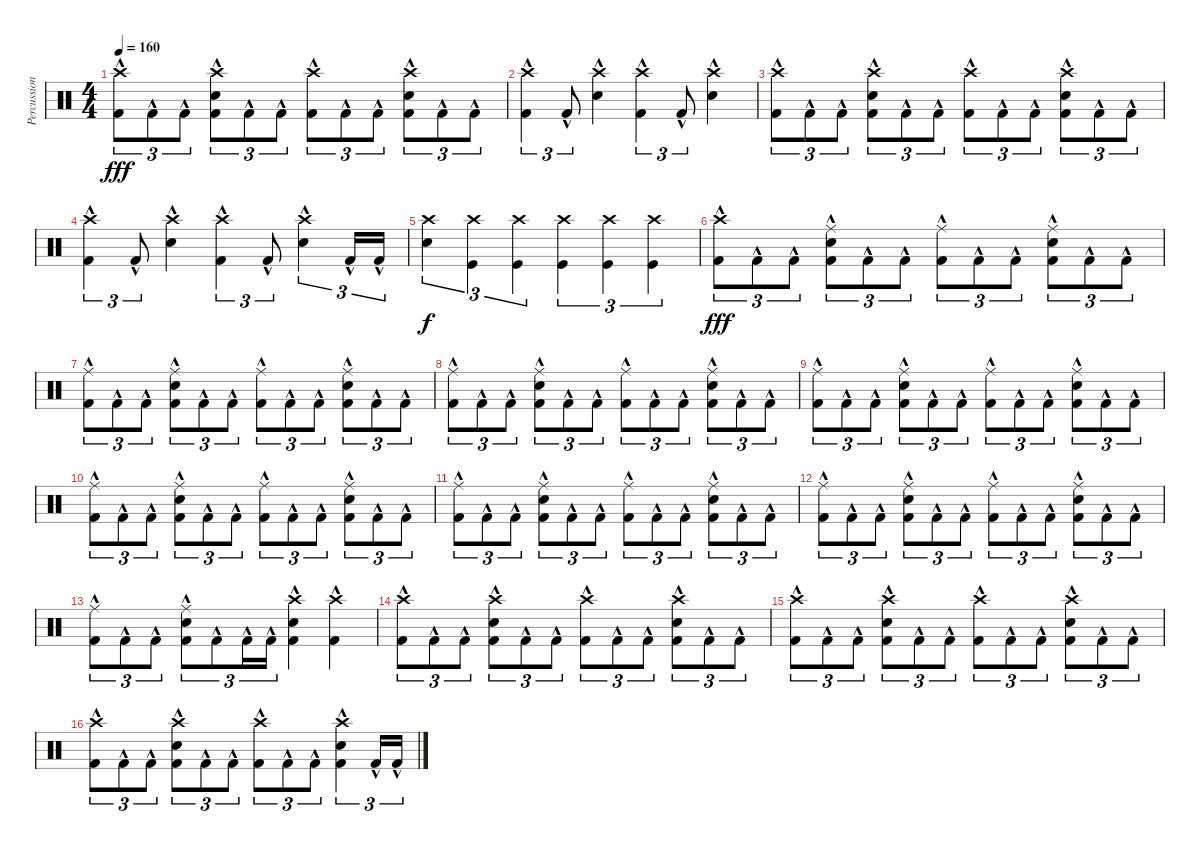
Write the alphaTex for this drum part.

\track ("Percussion" "Percussion") {instrument percussion}
\staff {score}
\articulation defaults
\ts (4 4)
\tempo 160
\clef neutral
\ks c
("Crash high (hit)" "Kick (hit) 2"{hac}).8{tu (3 2) dy fff} "Kick (hit) 2"{hac}.8{tu (3 2)} "Kick (hit) 2"{hac}.8{tu (3 2)} ("Crash high (hit)" "Electric Snare (hit)" "Kick (hit) 2"{hac}).8{tu (3 2)} "Kick (hit) 2"{hac}.8{tu (3 2)} "Kick (hit) 2"{hac}.8{tu (3 2)} ("Crash high (hit)" "Kick (hit) 2"{hac}).8{tu (3 2)} "Kick (hit) 2"{hac}.8{tu (3 2)} "Kick (hit) 2"{hac}.8{tu (3 2)} ("Crash high (hit)" "Electric Snare (hit)" "Kick (hit) 2"{hac}).8{tu (3 2)} "Kick (hit) 2"{hac}.8{tu (3 2)} "Kick (hit) 2"{hac}.8{tu (3 2)} |
("Crash high (hit)" "Kick (hit) 2"{hac}).4{tu (3 2)} "Kick (hit) 2"{hac}.8{tu (3 2)} ("Crash high (hit)" "Electric Snare (hit)"{hac}).4 ("Crash high (hit)" "Kick (hit) 2"{hac}).4{tu (3 2)} "Kick (hit) 2"{hac}.8{tu (3 2)} ("Crash high (hit)" "Electric Snare (hit)"{hac}).4 |
("Crash high (hit)" "Kick (hit) 2"{hac}).8{tu (3 2)} "Kick (hit) 2"{hac}.8{tu (3 2)} "Kick (hit) 2"{hac}.8{tu (3 2)} ("Crash high (hit)" "Electric Snare (hit)" "Kick (hit) 2"{hac}).8{tu (3 2)} "Kick (hit) 2"{hac}.8{tu (3 2)} "Kick (hit) 2"{hac}.8{tu (3 2)} ("Crash high (hit)" "Kick (hit) 2"{hac}).8{tu (3 2)} "Kick (hit) 2"{hac}.8{tu (3 2)} "Kick (hit) 2"{hac}.8{tu (3 2)} ("Crash high (hit)" "Electric Snare (hit)" "Kick (hit) 2"{hac}).8{tu (3 2)} "Kick (hit) 2"{hac}.8{tu (3 2)} "Kick (hit) 2"{hac}.8{tu (3 2)} |
("Crash high (hit)" "Kick (hit) 2"{hac}).4{tu (3 2)} "Kick (hit) 2"{hac}.8{tu (3 2)} ("Crash high (hit)" "Electric Snare (hit)"{hac}).4 ("Crash high (hit)" "Kick (hit) 2"{hac}).4{tu (3 2)} "Kick (hit) 2"{hac}.8{tu (3 2)} ("Crash high (hit)" "Electric Snare (hit)"{hac}).4{tu (3 2)} "Kick (hit) 2"{hac}.16{tu (3 2)} "Kick (hit) 2"{hac}.16{tu (3 2)} |
("Crash high (hit)" "Electric Snare (hit)").4{tu (3 2) dy f} ("Crash high (hit)" "Kick (hit)").4{tu (3 2)} ("Crash high (hit)" "Kick (hit)").4{tu (3 2)} ("Crash high (hit)" "Kick (hit)").4{tu (3 2)} ("Crash high (hit)" "Kick (hit)").4{tu (3 2)} ("Crash high (hit)" "Kick (hit)").4{tu (3 2)} |
("Crash high (hit)" "Kick (hit) 2"{hac}).8{tu (3 2) dy fff} "Kick (hit) 2"{hac}.8{tu (3 2)} "Kick (hit) 2"{hac}.8{tu (3 2)} ("Ride (middle)" "Electric Snare (hit)" "Kick (hit) 2"{hac}).8{tu (3 2)} "Kick (hit) 2"{hac}.8{tu (3 2)} "Kick (hit) 2"{hac}.8{tu (3 2)} ("Ride (middle)" "Kick (hit) 2"{hac}).8{tu (3 2)} "Kick (hit) 2"{hac}.8{tu (3 2)} "Kick (hit) 2"{hac}.8{tu (3 2)} ("Ride (middle)" "Electric Snare (hit)" "Kick (hit) 2"{hac}).8{tu (3 2)} "Kick (hit) 2"{hac}.8{tu (3 2)} "Kick (hit) 2"{hac}.8{tu (3 2)} |
("Ride (middle)" "Kick (hit) 2"{hac}).8{tu (3 2)} "Kick (hit) 2"{hac}.8{tu (3 2)} "Kick (hit) 2"{hac}.8{tu (3 2)} ("Ride (middle)" "Electric Snare (hit)" "Kick (hit) 2"{hac}).8{tu (3 2)} "Kick (hit) 2"{hac}.8{tu (3 2)} "Kick (hit) 2"{hac}.8{tu (3 2)} ("Ride (middle)" "Kick (hit) 2"{hac}).8{tu (3 2)} "Kick (hit) 2"{hac}.8{tu (3 2)} "Kick (hit) 2"{hac}.8{tu (3 2)} ("Ride (middle)" "Electric Snare (hit)" "Kick (hit) 2"{hac}).8{tu (3 2)} "Kick (hit) 2"{hac}.8{tu (3 2)} "Kick (hit) 2"{hac}.8{tu (3 2)} |
("Ride (middle)" "Kick (hit) 2"{hac}).8{tu (3 2)} "Kick (hit) 2"{hac}.8{tu (3 2)} "Kick (hit) 2"{hac}.8{tu (3 2)} ("Ride (middle)" "Electric Snare (hit)" "Kick (hit) 2"{hac}).8{tu (3 2)} "Kick (hit) 2"{hac}.8{tu (3 2)} "Kick (hit) 2"{hac}.8{tu (3 2)} ("Ride (middle)" "Kick (hit) 2"{hac}).8{tu (3 2)} "Kick (hit) 2"{hac}.8{tu (3 2)} "Kick (hit) 2"{hac}.8{tu (3 2)} ("Ride (middle)" "Electric Snare (hit)" "Kick (hit) 2"{hac}).8{tu (3 2)} "Kick (hit) 2"{hac}.8{tu (3 2)} "Kick (hit) 2"{hac}.8{tu (3 2)} |
("Ride (middle)" "Kick (hit) 2"{hac}).8{tu (3 2)} "Kick (hit) 2"{hac}.8{tu (3 2)} "Kick (hit) 2"{hac}.8{tu (3 2)} ("Ride (middle)" "Electric Snare (hit)" "Kick (hit) 2"{hac}).8{tu (3 2)} "Kick (hit) 2"{hac}.8{tu (3 2)} "Kick (hit) 2"{hac}.8{tu (3 2)} ("Ride (middle)" "Kick (hit) 2"{hac}).8{tu (3 2)} "Kick (hit) 2"{hac}.8{tu (3 2)} "Kick (hit) 2"{hac}.8{tu (3 2)} ("Ride (middle)" "Electric Snare (hit)" "Kick (hit) 2"{hac}).8{tu (3 2)} "Kick (hit) 2"{hac}.8{tu (3 2)} "Kick (hit) 2"{hac}.8{tu (3 2)} |
("Ride (middle)" "Kick (hit) 2"{hac}).8{tu (3 2)} "Kick (hit) 2"{hac}.8{tu (3 2)} "Kick (hit) 2"{hac}.8{tu (3 2)} ("Ride (middle)" "Electric Snare (hit)" "Kick (hit) 2"{hac}).8{tu (3 2)} "Kick (hit) 2"{hac}.8{tu (3 2)} "Kick (hit) 2"{hac}.8{tu (3 2)} ("Ride (middle)" "Kick (hit) 2"{hac}).8{tu (3 2)} "Kick (hit) 2"{hac}.8{tu (3 2)} "Kick (hit) 2"{hac}.8{tu (3 2)} ("Ride (middle)" "Electric Snare (hit)" "Kick (hit) 2"{hac}).8{tu (3 2)} "Kick (hit) 2"{hac}.8{tu (3 2)} "Kick (hit) 2"{hac}.8{tu (3 2)} |
("Ride (middle)" "Kick (hit) 2"{hac}).8{tu (3 2)} "Kick (hit) 2"{hac}.8{tu (3 2)} "Kick (hit) 2"{hac}.8{tu (3 2)} ("Ride (middle)" "Electric Snare (hit)" "Kick (hit) 2"{hac}).8{tu (3 2)} "Kick (hit) 2"{hac}.8{tu (3 2)} "Kick (hit) 2"{hac}.8{tu (3 2)} ("Ride (middle)" "Kick (hit) 2"{hac}).8{tu (3 2)} "Kick (hit) 2"{hac}.8{tu (3 2)} "Kick (hit) 2"{hac}.8{tu (3 2)} ("Ride (middle)" "Electric Snare (hit)" "Kick (hit) 2"{hac}).8{tu (3 2)} "Kick (hit) 2"{hac}.8{tu (3 2)} "Kick (hit) 2"{hac}.8{tu (3 2)} |
("Ride (middle)" "Kick (hit) 2"{hac}).8{tu (3 2)} "Kick (hit) 2"{hac}.8{tu (3 2)} "Kick (hit) 2"{hac}.8{tu (3 2)} ("Ride (middle)" "Electric Snare (hit)" "Kick (hit) 2"{hac}).8{tu (3 2)} "Kick (hit) 2"{hac}.8{tu (3 2)} "Kick (hit) 2"{hac}.8{tu (3 2)} ("Ride (middle)" "Kick (hit) 2"{hac}).8{tu (3 2)} "Kick (hit) 2"{hac}.8{tu (3 2)} "Kick (hit) 2"{hac}.8{tu (3 2)} ("Ride (middle)" "Electric Snare (hit)" "Kick (hit) 2"{hac}).8{tu (3 2)} "Kick (hit) 2"{hac}.8{tu (3 2)} "Kick (hit) 2"{hac}.8{tu (3 2)} |
("Ride (middle)" "Kick (hit) 2"{hac}).8{tu (3 2)} "Kick (hit) 2"{hac}.8{tu (3 2)} "Kick (hit) 2"{hac}.8{tu (3 2)} ("Ride (middle)" "Electric Snare (hit)" "Kick (hit) 2"{hac}).8{tu (3 2)} "Kick (hit) 2"{hac}.8{tu (3 2)} "Kick (hit) 2"{hac}.16{tu (3 2)} "Kick (hit) 2"{hac}.16{tu (3 2)} ("Crash high (hit)" "Electric Snare (hit)" "Kick (hit) 2"{hac}).4 ("Crash high (hit)" "Kick (hit) 2"{hac}).4 |
("Crash high (hit)" "Kick (hit) 2"{hac}).8{tu (3 2)} "Kick (hit) 2"{hac}.8{tu (3 2)} "Kick (hit) 2"{hac}.8{tu (3 2)} ("Crash high (hit)" "Electric Snare (hit)" "Kick (hit) 2"{hac}).8{tu (3 2)} "Kick (hit) 2"{hac}.8{tu (3 2)} "Kick (hit) 2"{hac}.8{tu (3 2)} ("Crash high (hit)" "Kick (hit) 2"{hac}).8{tu (3 2)} "Kick (hit) 2"{hac}.8{tu (3 2)} "Kick (hit) 2"{hac}.8{tu (3 2)} ("Crash high (hit)" "Electric Snare (hit)" "Kick (hit) 2"{hac}).8{tu (3 2)} "Kick (hit) 2"{hac}.8{tu (3 2)} "Kick (hit) 2"{hac}.8{tu (3 2)} |
("Crash high (hit)" "Kick (hit) 2"{hac}).8{tu (3 2)} "Kick (hit) 2"{hac}.8{tu (3 2)} "Kick (hit) 2"{hac}.8{tu (3 2)} ("Crash high (hit)" "Electric Snare (hit)" "Kick (hit) 2"{hac}).8{tu (3 2)} "Kick (hit) 2"{hac}.8{tu (3 2)} "Kick (hit) 2"{hac}.8{tu (3 2)} ("Crash high (hit)" "Kick (hit) 2"{hac}).8{tu (3 2)} "Kick (hit) 2"{hac}.8{tu (3 2)} "Kick (hit) 2"{hac}.8{tu (3 2)} ("Crash high (hit)" "Electric Snare (hit)" "Kick (hit) 2"{hac}).8{tu (3 2)} "Kick (hit) 2"{hac}.8{tu (3 2)} "Kick (hit) 2"{hac}.8{tu (3 2)} |
("Crash high (hit)" "Kick (hit) 2"{hac}).8{tu (3 2)} "Kick (hit) 2"{hac}.8{tu (3 2)} "Kick (hit) 2"{hac}.8{tu (3 2)} ("Crash high (hit)" "Electric Snare (hit)" "Kick (hit) 2"{hac}).8{tu (3 2)} "Kick (hit) 2"{hac}.8{tu (3 2)} "Kick (hit) 2"{hac}.8{tu (3 2)} ("Crash high (hit)" "Kick (hit) 2"{hac}).8{tu (3 2)} "Kick (hit) 2"{hac}.8{tu (3 2)} "Kick (hit) 2"{hac}.8{tu (3 2)} ("Crash high (hit)" "Electric Snare (hit)" "Kick (hit) 2"{hac}).4{tu (3 2)} "Kick (hit) 2"{hac}.16{tu (3 2)} "Kick (hit) 2"{hac}.16{tu (3 2)}
